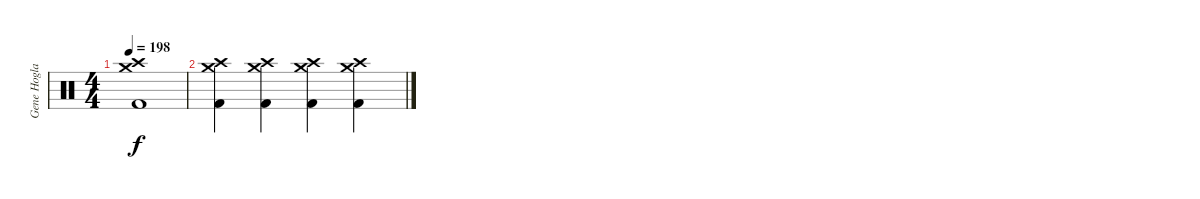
\track ("Gene Hoglan" "Gene Hogla") {instrument percussion}
\staff {score}
\articulation defaults
\ts (4 4)
\tempo 198
\clef neutral
\ks c
("Crash medium (hit)" "Crash high (hit)" "Kick (hit) 2").1{dy f} |
("Crash medium (hit)" "Crash high (hit)" "Kick (hit) 2").4 ("Crash medium (hit)" "Crash high (hit)" "Kick (hit) 2").4 ("Crash medium (hit)" "Crash high (hit)" "Kick (hit) 2").4 ("Crash medium (hit)" "Crash high (hit)" "Kick (hit) 2").4
